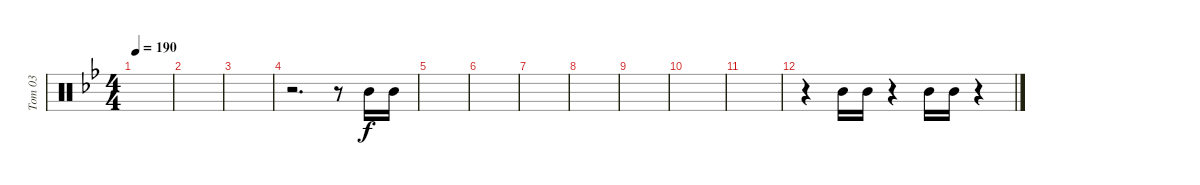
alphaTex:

\track ("Tom 03" "Tom 03") {instrument percussion}
\staff {score}
\articulation defaults
\ts (4 4)
\tempo 190
\clef neutral
\ks bb
|
|
|
r.2{d} r.8 "Mid Tom (hit)".16 "Mid Tom (hit)".16 |
|
|
|
|
|
|
|
r.4 "Mid Tom (hit)".16 "Mid Tom (hit)".16 r.4 "Mid Tom (hit)".16 "Mid Tom (hit)".16 r.4
